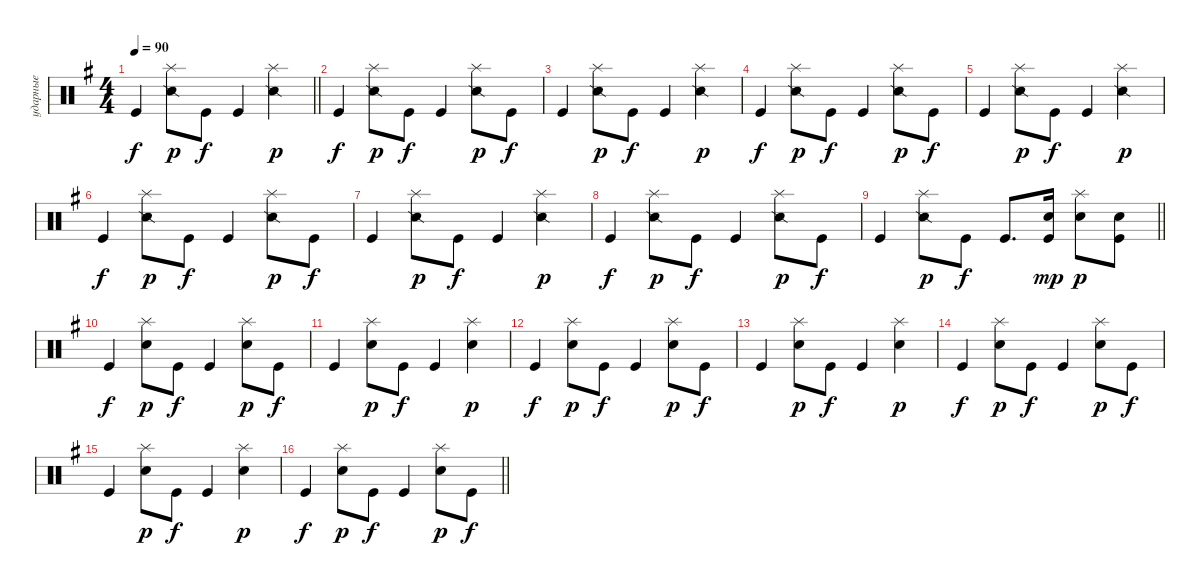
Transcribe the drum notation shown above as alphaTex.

\track ("ударные" "ударные") {instrument percussion}
\staff {score}
\articulation defaults
\ts (4 4)
\tempo 90
\clef neutral
\barLineRight lightlight
\ks eminor "Kick (hit)".4{dy f}
("Splash (hit)" "Snare (side stick) 2").8{dy p} "Kick (hit)".8{dy f} "Kick (hit)".4 ("Splash (hit)" "Snare (side stick) 2").4{dy p} |
\section ("" "")
"Kick (hit)".4{dy f} ("Splash (hit)" "Snare (side stick) 2").8{dy p} "Kick (hit)".8{dy f} "Kick (hit)".4 ("Splash (hit)" "Snare (side stick) 2").8{dy p} "Kick (hit)".8{dy f} |
"Kick (hit)".4 ("Splash (hit)" "Snare (side stick) 2").8{dy p} "Kick (hit)".8{dy f} "Kick (hit)".4 ("Splash (hit)" "Snare (side stick) 2").4{dy p} |
"Kick (hit)".4{dy f} ("Splash (hit)" "Snare (side stick) 2").8{dy p} "Kick (hit)".8{dy f} "Kick (hit)".4 ("Splash (hit)" "Snare (side stick) 2").8{dy p} "Kick (hit)".8{dy f} |
"Kick (hit)".4 ("Splash (hit)" "Snare (side stick) 2").8{dy p} "Kick (hit)".8{dy f} "Kick (hit)".4 ("Splash (hit)" "Snare (side stick) 2").4{dy p} |
"Kick (hit)".4{dy f} ("Splash (hit)" "Snare (side stick) 2").8{dy p} "Kick (hit)".8{dy f} "Kick (hit)".4 ("Splash (hit)" "Snare (side stick) 2").8{dy p} "Kick (hit)".8{dy f} |
"Kick (hit)".4 ("Splash (hit)" "Snare (side stick) 2").8{dy p} "Kick (hit)".8{dy f} "Kick (hit)".4 ("Splash (hit)" "Snare (side stick) 2").4{dy p} |
"Kick (hit)".4{dy f} ("Splash (hit)" "Snare (side stick) 2").8{dy p} "Kick (hit)".8{dy f} "Kick (hit)".4 ("Splash (hit)" "Snare (side stick) 2").8{dy p} "Kick (hit)".8{dy f} |
\barLineRight lightlight "Kick (hit)".4
("Splash (hit)" "Snare (side stick) 2").8{dy p} "Kick (hit)".8{dy f} "Kick (hit)".8{d} ("Snare (hit) 2" "Kick (hit)").16{dy mp} ("Splash (hit)" "Snare (hit) 2").8{dy p} ("Snare (hit) 2" "Kick (hit)").8 |
\section ("" "")
"Kick (hit)".4{dy f} ("Splash (hit)" "Snare (hit) 2").8{dy p} "Kick (hit)".8{dy f} "Kick (hit)".4 ("Splash (hit)" "Snare (hit) 2").8{dy p} "Kick (hit)".8{dy f} |
"Kick (hit)".4 ("Splash (hit)" "Snare (hit) 2").8{dy p} "Kick (hit)".8{dy f} "Kick (hit)".4 ("Splash (hit)" "Snare (hit) 2").4{dy p} |
"Kick (hit)".4{dy f} ("Splash (hit)" "Snare (hit) 2").8{dy p} "Kick (hit)".8{dy f} "Kick (hit)".4 ("Splash (hit)" "Snare (hit) 2").8{dy p} "Kick (hit)".8{dy f} |
"Kick (hit)".4 ("Splash (hit)" "Snare (hit) 2").8{dy p} "Kick (hit)".8{dy f} "Kick (hit)".4 ("Splash (hit)" "Snare (hit) 2").4{dy p} |
"Kick (hit)".4{dy f} ("Splash (hit)" "Snare (hit) 2").8{dy p} "Kick (hit)".8{dy f} "Kick (hit)".4 ("Splash (hit)" "Snare (hit) 2").8{dy p} "Kick (hit)".8{dy f} |
"Kick (hit)".4 ("Splash (hit)" "Snare (hit) 2").8{dy p} "Kick (hit)".8{dy f} "Kick (hit)".4 ("Splash (hit)" "Snare (hit) 2").4{dy p} |
\barLineRight lightlight "Kick (hit)".4{dy f}
("Splash (hit)" "Snare (hit) 2").8{dy p} "Kick (hit)".8{dy f} "Kick (hit)".4 ("Splash (hit)" "Snare (hit) 2").8{dy p} "Kick (hit)".8{dy f}
